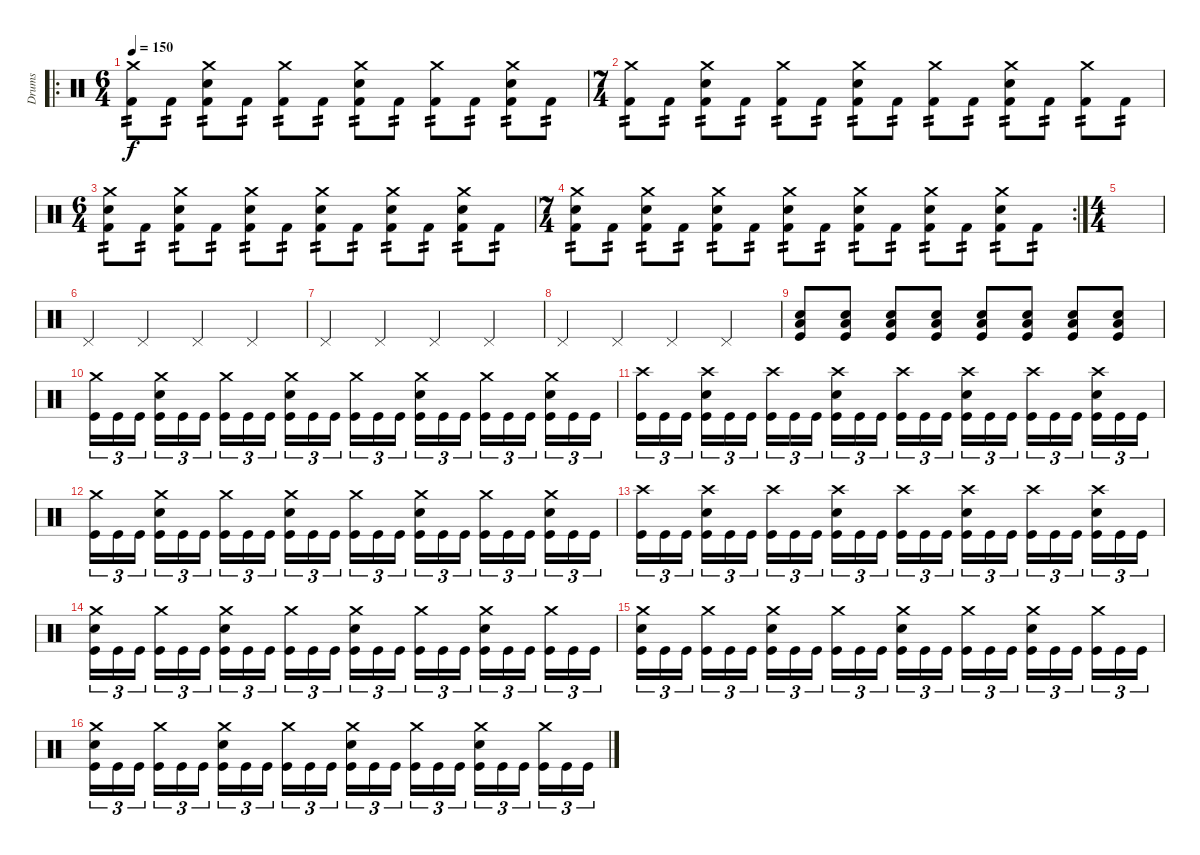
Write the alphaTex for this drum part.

\track ("Drums" "Drums") {instrument percussion}
\staff {score}
\articulation defaults
\ro
\ts (6 4)
\tempo 150
\tempo 175
\tempo 150
\clef neutral
\ks c
("Crash medium (hit)" "Kick (hit) 2").8{tp 2 dy f} "Kick (hit) 2".8{tp 2} ("Crash medium (hit)" "Electric Snare (hit)" "Kick (hit) 2").8{tp 2} "Kick (hit) 2".8{tp 2} ("Crash medium (hit)" "Kick (hit) 2").8{tp 2} "Kick (hit) 2".8{tp 2} ("Crash medium (hit)" "Electric Snare (hit)" "Kick (hit) 2").8{tp 2} "Kick (hit) 2".8{tp 2} ("Crash medium (hit)" "Kick (hit) 2").8{tp 2} "Kick (hit) 2".8{tp 2} ("Crash medium (hit)" "Electric Snare (hit)" "Kick (hit) 2").8{tp 2} "Kick (hit) 2".8{tp 2} |
\ts (7 4)
("Crash medium (hit)" "Kick (hit) 2").8{tp 2} "Kick (hit) 2".8{tp 2} ("Crash medium (hit)" "Electric Snare (hit)" "Kick (hit) 2").8{tp 2} "Kick (hit) 2".8{tp 2} ("Crash medium (hit)" "Kick (hit) 2").8{tp 2} "Kick (hit) 2".8{tp 2} ("Crash medium (hit)" "Electric Snare (hit)" "Kick (hit) 2").8{tp 2} "Kick (hit) 2".8{tp 2} ("Crash medium (hit)" "Kick (hit) 2").8{tp 2} "Kick (hit) 2".8{tp 2} ("Crash medium (hit)" "Electric Snare (hit)" "Kick (hit) 2").8{tp 2} "Kick (hit) 2".8{tp 2} ("Crash medium (hit)" "Kick (hit) 2").8{tp 2} "Kick (hit) 2".8{tp 2} |
\ts (6 4)
("Crash medium (hit)" "Electric Snare (hit)" "Kick (hit) 2").8{tp 2} "Kick (hit) 2".8{tp 2} ("Crash medium (hit)" "Electric Snare (hit)" "Kick (hit) 2").8{tp 2} "Kick (hit) 2".8{tp 2} ("Crash medium (hit)" "Electric Snare (hit)" "Kick (hit) 2").8{tp 2} "Kick (hit) 2".8{tp 2} ("Crash medium (hit)" "Electric Snare (hit)" "Kick (hit) 2").8{tp 2} "Kick (hit) 2".8{tp 2} ("Crash medium (hit)" "Electric Snare (hit)" "Kick (hit) 2").8{tp 2} "Kick (hit) 2".8{tp 2} ("Crash medium (hit)" "Electric Snare (hit)" "Kick (hit) 2").8{tp 2} "Kick (hit) 2".8{tp 2} |
\rc 2
\ts (7 4)
("Crash medium (hit)" "Electric Snare (hit)" "Kick (hit) 2").8{tp 2} "Kick (hit) 2".8{tp 2} ("Crash medium (hit)" "Electric Snare (hit)" "Kick (hit) 2").8{tp 2} "Kick (hit) 2".8{tp 2} ("Crash medium (hit)" "Electric Snare (hit)" "Kick (hit) 2").8{tp 2} "Kick (hit) 2".8{tp 2} ("Crash medium (hit)" "Electric Snare (hit)" "Kick (hit) 2").8{tp 2} "Kick (hit) 2".8{tp 2} ("Crash medium (hit)" "Electric Snare (hit)" "Kick (hit) 2").8{tp 2} "Kick (hit) 2".8{tp 2} ("Crash medium (hit)" "Electric Snare (hit)" "Kick (hit) 2").8{tp 2} "Kick (hit) 2".8{tp 2} ("Crash medium (hit)" "Electric Snare (hit)" "Kick (hit) 2").8{tp 2} "Kick (hit) 2".8{tp 2} |
\ts (4 4)
|
"Pedal Hi-Hat (hit)".4 "Pedal Hi-Hat (hit)".4 "Pedal Hi-Hat (hit)".4 "Pedal Hi-Hat (hit)".4 |
"Pedal Hi-Hat (hit)".4 "Pedal Hi-Hat (hit)".4 "Pedal Hi-Hat (hit)".4 "Pedal Hi-Hat (hit)".4 |
"Pedal Hi-Hat (hit)".4 "Pedal Hi-Hat (hit)".4 "Pedal Hi-Hat (hit)".4 "Pedal Hi-Hat (hit)".4 |
("Low Tom (hit)" "Snare (hit) 2" "Kick (hit)").8 ("Low Tom (hit)" "Snare (hit) 2" "Kick (hit)").8 ("Low Tom (hit)" "Snare (hit) 2" "Kick (hit)").8 ("Low Tom (hit)" "Snare (hit) 2" "Kick (hit)").8 ("Low Tom (hit)" "Snare (hit) 2" "Kick (hit)").8 ("Low Tom (hit)" "Snare (hit) 2" "Kick (hit)").8 ("Low Tom (hit)" "Snare (hit) 2" "Kick (hit)").8 ("Low Tom (hit)" "Snare (hit) 2" "Kick (hit)").8 |
("Crash medium (hit)" "Kick (hit)").16{tu (3 2)} "Kick (hit)".16{tu (3 2)} "Kick (hit)".16{tu (3 2)} ("Crash medium (hit)" "Electric Snare (hit)" "Kick (hit)").16{tu (3 2)} "Kick (hit)".16{tu (3 2)} "Kick (hit)".16{tu (3 2)} ("Crash medium (hit)" "Kick (hit)").16{tu (3 2)} "Kick (hit)".16{tu (3 2)} "Kick (hit)".16{tu (3 2)} ("Crash medium (hit)" "Electric Snare (hit)" "Kick (hit)").16{tu (3 2)} "Kick (hit)".16{tu (3 2)} "Kick (hit)".16{tu (3 2)} ("Crash medium (hit)" "Kick (hit)").16{tu (3 2)} "Kick (hit)".16{tu (3 2)} "Kick (hit)".16{tu (3 2)} ("Crash medium (hit)" "Electric Snare (hit)" "Kick (hit)").16{tu (3 2)} "Kick (hit)".16{tu (3 2)} "Kick (hit)".16{tu (3 2)} ("Crash medium (hit)" "Kick (hit)").16{tu (3 2)} "Kick (hit)".16{tu (3 2)} "Kick (hit)".16{tu (3 2)} ("Crash medium (hit)" "Electric Snare (hit)" "Kick (hit)").16{tu (3 2)} "Kick (hit)".16{tu (3 2)} "Kick (hit)".16{tu (3 2)} |
("Crash high (hit)" "Kick (hit)").16{tu (3 2)} "Kick (hit)".16{tu (3 2)} "Kick (hit)".16{tu (3 2)} ("Crash high (hit)" "Electric Snare (hit)" "Kick (hit)").16{tu (3 2)} "Kick (hit)".16{tu (3 2)} "Kick (hit)".16{tu (3 2)} ("Crash high (hit)" "Kick (hit)").16{tu (3 2)} "Kick (hit)".16{tu (3 2)} "Kick (hit)".16{tu (3 2)} ("Crash high (hit)" "Electric Snare (hit)" "Kick (hit)").16{tu (3 2)} "Kick (hit)".16{tu (3 2)} "Kick (hit)".16{tu (3 2)} ("Crash high (hit)" "Kick (hit)").16{tu (3 2)} "Kick (hit)".16{tu (3 2)} "Kick (hit)".16{tu (3 2)} ("Crash high (hit)" "Electric Snare (hit)" "Kick (hit)").16{tu (3 2)} "Kick (hit)".16{tu (3 2)} "Kick (hit)".16{tu (3 2)} ("Crash high (hit)" "Kick (hit)").16{tu (3 2)} "Kick (hit)".16{tu (3 2)} "Kick (hit)".16{tu (3 2)} ("Crash high (hit)" "Electric Snare (hit)" "Kick (hit)").16{tu (3 2)} "Kick (hit)".16{tu (3 2)} "Kick (hit)".16{tu (3 2)} |
("Crash medium (hit)" "Kick (hit)").16{tu (3 2)} "Kick (hit)".16{tu (3 2)} "Kick (hit)".16{tu (3 2)} ("Crash medium (hit)" "Electric Snare (hit)" "Kick (hit)").16{tu (3 2)} "Kick (hit)".16{tu (3 2)} "Kick (hit)".16{tu (3 2)} ("Crash medium (hit)" "Kick (hit)").16{tu (3 2)} "Kick (hit)".16{tu (3 2)} "Kick (hit)".16{tu (3 2)} ("Crash medium (hit)" "Electric Snare (hit)" "Kick (hit)").16{tu (3 2)} "Kick (hit)".16{tu (3 2)} "Kick (hit)".16{tu (3 2)} ("Crash medium (hit)" "Kick (hit)").16{tu (3 2)} "Kick (hit)".16{tu (3 2)} "Kick (hit)".16{tu (3 2)} ("Crash medium (hit)" "Electric Snare (hit)" "Kick (hit)").16{tu (3 2)} "Kick (hit)".16{tu (3 2)} "Kick (hit)".16{tu (3 2)} ("Crash medium (hit)" "Kick (hit)").16{tu (3 2)} "Kick (hit)".16{tu (3 2)} "Kick (hit)".16{tu (3 2)} ("Crash medium (hit)" "Electric Snare (hit)" "Kick (hit)").16{tu (3 2)} "Kick (hit)".16{tu (3 2)} "Kick (hit)".16{tu (3 2)} |
("Crash high (hit)" "Kick (hit)").16{tu (3 2)} "Kick (hit)".16{tu (3 2)} "Kick (hit)".16{tu (3 2)} ("Crash high (hit)" "Electric Snare (hit)" "Kick (hit)").16{tu (3 2)} "Kick (hit)".16{tu (3 2)} "Kick (hit)".16{tu (3 2)} ("Crash high (hit)" "Kick (hit)").16{tu (3 2)} "Kick (hit)".16{tu (3 2)} "Kick (hit)".16{tu (3 2)} ("Crash high (hit)" "Electric Snare (hit)" "Kick (hit)").16{tu (3 2)} "Kick (hit)".16{tu (3 2)} "Kick (hit)".16{tu (3 2)} ("Crash high (hit)" "Kick (hit)").16{tu (3 2)} "Kick (hit)".16{tu (3 2)} "Kick (hit)".16{tu (3 2)} ("Crash high (hit)" "Electric Snare (hit)" "Kick (hit)").16{tu (3 2)} "Kick (hit)".16{tu (3 2)} "Kick (hit)".16{tu (3 2)} ("Crash high (hit)" "Kick (hit)").16{tu (3 2)} "Kick (hit)".16{tu (3 2)} "Kick (hit)".16{tu (3 2)} ("Crash high (hit)" "Electric Snare (hit)" "Kick (hit)").16{tu (3 2)} "Kick (hit)".16{tu (3 2)} "Kick (hit)".16{tu (3 2)} |
("Crash medium (hit)" "Electric Snare (hit)" "Kick (hit)").16{tu (3 2)} "Kick (hit)".16{tu (3 2)} "Kick (hit)".16{tu (3 2)} ("Crash medium (hit)" "Kick (hit)").16{tu (3 2)} "Kick (hit)".16{tu (3 2)} "Kick (hit)".16{tu (3 2)} ("Crash medium (hit)" "Electric Snare (hit)" "Kick (hit)").16{tu (3 2)} "Kick (hit)".16{tu (3 2)} "Kick (hit)".16{tu (3 2)} ("Crash medium (hit)" "Kick (hit)").16{tu (3 2)} "Kick (hit)".16{tu (3 2)} "Kick (hit)".16{tu (3 2)} ("Crash medium (hit)" "Electric Snare (hit)" "Kick (hit)").16{tu (3 2)} "Kick (hit)".16{tu (3 2)} "Kick (hit)".16{tu (3 2)} ("Crash medium (hit)" "Kick (hit)").16{tu (3 2)} "Kick (hit)".16{tu (3 2)} "Kick (hit)".16{tu (3 2)} ("Crash medium (hit)" "Electric Snare (hit)" "Kick (hit)").16{tu (3 2)} "Kick (hit)".16{tu (3 2)} "Kick (hit)".16{tu (3 2)} ("Crash medium (hit)" "Kick (hit)").16{tu (3 2)} "Kick (hit)".16{tu (3 2)} "Kick (hit)".16{tu (3 2)} |
("Crash medium (hit)" "Electric Snare (hit)" "Kick (hit)").16{tu (3 2)} "Kick (hit)".16{tu (3 2)} "Kick (hit)".16{tu (3 2)} ("Crash medium (hit)" "Kick (hit)").16{tu (3 2)} "Kick (hit)".16{tu (3 2)} "Kick (hit)".16{tu (3 2)} ("Crash medium (hit)" "Electric Snare (hit)" "Kick (hit)").16{tu (3 2)} "Kick (hit)".16{tu (3 2)} "Kick (hit)".16{tu (3 2)} ("Crash medium (hit)" "Kick (hit)").16{tu (3 2)} "Kick (hit)".16{tu (3 2)} "Kick (hit)".16{tu (3 2)} ("Crash medium (hit)" "Electric Snare (hit)" "Kick (hit)").16{tu (3 2)} "Kick (hit)".16{tu (3 2)} "Kick (hit)".16{tu (3 2)} ("Crash medium (hit)" "Kick (hit)").16{tu (3 2)} "Kick (hit)".16{tu (3 2)} "Kick (hit)".16{tu (3 2)} ("Crash medium (hit)" "Electric Snare (hit)" "Kick (hit)").16{tu (3 2)} "Kick (hit)".16{tu (3 2)} "Kick (hit)".16{tu (3 2)} ("Crash medium (hit)" "Kick (hit)").16{tu (3 2)} "Kick (hit)".16{tu (3 2)} "Kick (hit)".16{tu (3 2)} |
("Crash medium (hit)" "Electric Snare (hit)" "Kick (hit)").16{tu (3 2)} "Kick (hit)".16{tu (3 2)} "Kick (hit)".16{tu (3 2)} ("Crash medium (hit)" "Kick (hit)").16{tu (3 2)} "Kick (hit)".16{tu (3 2)} "Kick (hit)".16{tu (3 2)} ("Crash medium (hit)" "Electric Snare (hit)" "Kick (hit)").16{tu (3 2)} "Kick (hit)".16{tu (3 2)} "Kick (hit)".16{tu (3 2)} ("Crash medium (hit)" "Kick (hit)").16{tu (3 2)} "Kick (hit)".16{tu (3 2)} "Kick (hit)".16{tu (3 2)} ("Crash medium (hit)" "Electric Snare (hit)" "Kick (hit)").16{tu (3 2)} "Kick (hit)".16{tu (3 2)} "Kick (hit)".16{tu (3 2)} ("Crash medium (hit)" "Kick (hit)").16{tu (3 2)} "Kick (hit)".16{tu (3 2)} "Kick (hit)".16{tu (3 2)} ("Crash medium (hit)" "Electric Snare (hit)" "Kick (hit)").16{tu (3 2)} "Kick (hit)".16{tu (3 2)} "Kick (hit)".16{tu (3 2)} ("Crash medium (hit)" "Kick (hit)").16{tu (3 2)} "Kick (hit)".16{tu (3 2)} "Kick (hit)".16{tu (3 2)}
